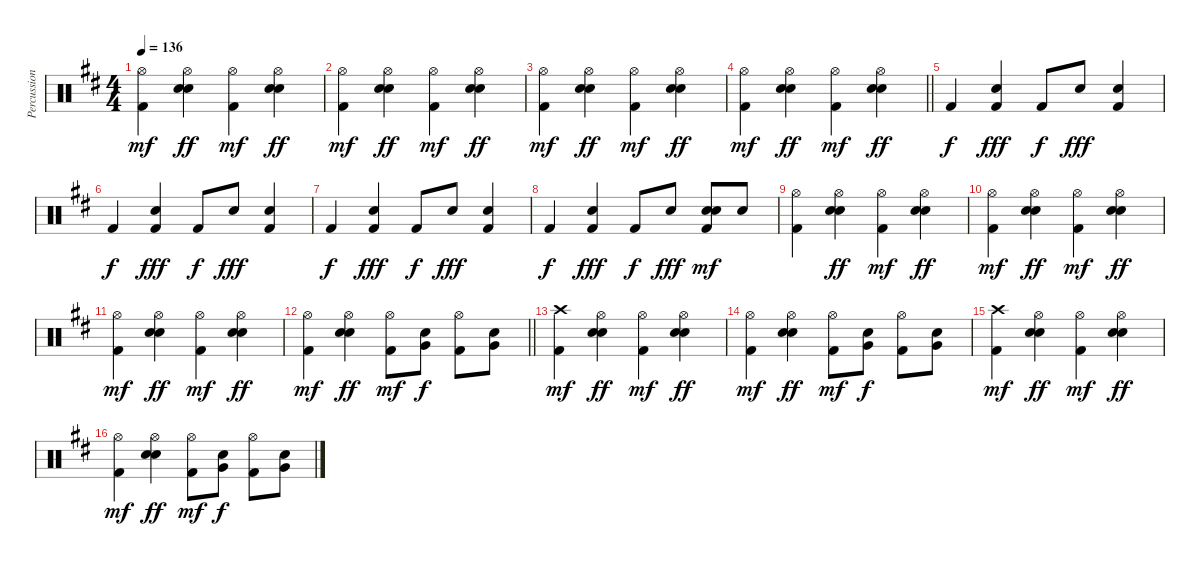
\track ("Percussion" "Percussion") {instrument percussion}
\staff {score}
\articulation defaults
\ts (4 4)
\tempo 136
\clef neutral
\ks d
("Hi-Hat (open)" "Kick (hit) 2").4{dy mf} ("Hi-Hat (open)" "Snare (hit) 2" "Hand Clap (hit)").4{dy ff} ("Hi-Hat (open)" "Kick (hit) 2").4{dy mf} ("Hi-Hat (open)" "Snare (hit) 2" "Hand Clap (hit)").4{dy ff} |
("Hi-Hat (open)" "Kick (hit) 2").4{dy mf} ("Hi-Hat (open)" "Snare (hit) 2" "Hand Clap (hit)").4{dy ff} ("Hi-Hat (open)" "Kick (hit) 2").4{dy mf} ("Hi-Hat (open)" "Snare (hit) 2" "Hand Clap (hit)").4{dy ff} |
("Hi-Hat (open)" "Kick (hit) 2").4{dy mf} ("Hi-Hat (open)" "Snare (hit) 2" "Hand Clap (hit)").4{dy ff} ("Hi-Hat (open)" "Kick (hit) 2").4{dy mf} ("Hi-Hat (open)" "Snare (hit) 2" "Hand Clap (hit)").4{dy ff} |
\barLineRight lightlight
("Hi-Hat (open)" "Kick (hit) 2").4{dy mf} ("Hi-Hat (open)" "Snare (hit) 2" "Hand Clap (hit)").4{dy ff} ("Hi-Hat (open)" "Kick (hit) 2").4{dy mf} ("Hi-Hat (open)" "Snare (hit) 2" "Hand Clap (hit)").4{dy ff} |
"Kick (hit) 2".4{dy f} ("Hand Clap (hit)" "Kick (hit) 2").4{dy fff} "Kick (hit) 2".8{dy f} "Hand Clap (hit)".8{dy fff} ("Hand Clap (hit)" "Kick (hit) 2").4 |
"Kick (hit) 2".4{dy f} ("Hand Clap (hit)" "Kick (hit) 2").4{dy fff} "Kick (hit) 2".8{dy f} "Hand Clap (hit)".8{dy fff} ("Hand Clap (hit)" "Kick (hit) 2").4 |
"Kick (hit) 2".4{dy f} ("Hand Clap (hit)" "Kick (hit) 2").4{dy fff} "Kick (hit) 2".8{dy f} "Hand Clap (hit)".8{dy fff} ("Hand Clap (hit)" "Kick (hit) 2").4 |
"Kick (hit) 2".4{dy f} ("Hand Clap (hit)" "Kick (hit) 2").4{dy fff} "Kick (hit) 2".8{dy f} "Hand Clap (hit)".8{dy fff} ("Hand Clap (hit)" "Snare (hit) 2" "Kick (hit) 2").8{dy mf} "Snare (hit) 2".8 |
("Hi-Hat (open)" "Kick (hit) 2").4 ("Hi-Hat (open)" "Snare (hit) 2" "Hand Clap (hit)").4{dy ff} ("Hi-Hat (open)" "Kick (hit) 2").4{dy mf} ("Hi-Hat (open)" "Snare (hit) 2" "Hand Clap (hit)").4{dy ff} |
("Hi-Hat (open)" "Kick (hit) 2").4{dy mf} ("Hi-Hat (open)" "Snare (hit) 2" "Hand Clap (hit)").4{dy ff} ("Hi-Hat (open)" "Kick (hit) 2").4{dy mf} ("Hi-Hat (open)" "Snare (hit) 2" "Hand Clap (hit)").4{dy ff} |
("Hi-Hat (open)" "Kick (hit) 2").4{dy mf} ("Hi-Hat (open)" "Snare (hit) 2" "Hand Clap (hit)").4{dy ff} ("Hi-Hat (open)" "Kick (hit) 2").4{dy mf} ("Hi-Hat (open)" "Snare (hit) 2" "Hand Clap (hit)").4{dy ff} |
\barLineRight lightlight
("Hi-Hat (open)" "Kick (hit) 2").4{dy mf} ("Hi-Hat (open)" "Snare (hit) 2" "Hand Clap (hit)").4{dy ff} ("Hi-Hat (open)" "Kick (hit) 2").8{dy mf} ("Snare (hit) 2" "Very Low Tom (hit)").8{dy f} ("Hi-Hat (open)" "Kick (hit) 2").8 ("Snare (hit) 2" "Very Low Tom (hit)").8 |
("Crash high (hit)" "Kick (hit) 2").4{dy mf} ("Hi-Hat (open)" "Snare (hit) 2" "Hand Clap (hit)").4{dy ff} ("Hi-Hat (open)" "Kick (hit) 2").4{dy mf} ("Hi-Hat (open)" "Snare (hit) 2" "Hand Clap (hit)").4{dy ff} |
("Hi-Hat (open)" "Kick (hit) 2").4{dy mf} ("Hi-Hat (open)" "Snare (hit) 2" "Hand Clap (hit)").4{dy ff} ("Hi-Hat (open)" "Kick (hit) 2").8{dy mf} ("Snare (hit) 2" "Very Low Tom (hit)").8{dy f} ("Hi-Hat (open)" "Kick (hit) 2").8 ("Snare (hit) 2" "Very Low Tom (hit)").8 |
("Crash high (hit)" "Kick (hit) 2").4{dy mf} ("Hi-Hat (open)" "Snare (hit) 2" "Hand Clap (hit)").4{dy ff} ("Hi-Hat (open)" "Kick (hit) 2").4{dy mf} ("Hi-Hat (open)" "Snare (hit) 2" "Hand Clap (hit)").4{dy ff} |
("Hi-Hat (open)" "Kick (hit) 2").4{dy mf} ("Hi-Hat (open)" "Snare (hit) 2" "Hand Clap (hit)").4{dy ff} ("Hi-Hat (open)" "Kick (hit) 2").8{dy mf} ("Snare (hit) 2" "Very Low Tom (hit)").8{dy f} ("Hi-Hat (open)" "Kick (hit) 2").8 ("Snare (hit) 2" "Very Low Tom (hit)").8
